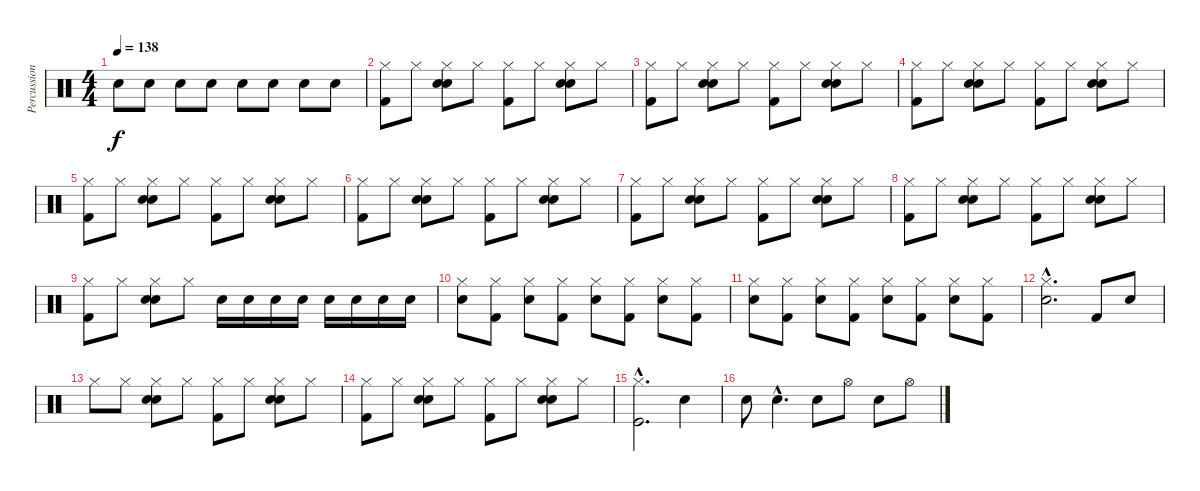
\track ("Percussions" "Percussion") {instrument percussion}
\staff {score}
\articulation defaults
\ts (4 4)
\tempo 138
\clef neutral
\ks c "Electric Snare (hit)".8{dy f} "Electric Snare (hit)".8 "Electric Snare (hit)".8 "Electric Snare (hit)".8 "Electric Snare (hit)".8 "Electric Snare (hit)".8 "Electric Snare (hit)".8 "Electric Snare (hit)".8
|
("Hi-Hat (closed)" "Kick (hit) 2").8 "Hi-Hat (closed)".8 ("Hi-Hat (closed)" "Snare (hit) 2" "Electric Snare (hit)").8 "Hi-Hat (closed)".8 ("Hi-Hat (closed)" "Kick (hit) 2").8 "Hi-Hat (closed)".8 ("Hi-Hat (closed)" "Snare (hit) 2" "Electric Snare (hit)").8 "Hi-Hat (closed)".8 |
("Hi-Hat (closed)" "Kick (hit) 2").8 "Hi-Hat (closed)".8 ("Hi-Hat (closed)" "Snare (hit) 2" "Electric Snare (hit)").8 "Hi-Hat (closed)".8 ("Hi-Hat (closed)" "Kick (hit) 2").8 "Hi-Hat (closed)".8 ("Hi-Hat (closed)" "Snare (hit) 2" "Electric Snare (hit)").8 "Hi-Hat (closed)".8 |
("Hi-Hat (closed)" "Kick (hit) 2").8 "Hi-Hat (closed)".8 ("Hi-Hat (closed)" "Snare (hit) 2" "Electric Snare (hit)").8 "Hi-Hat (closed)".8 ("Hi-Hat (closed)" "Kick (hit) 2").8 "Hi-Hat (closed)".8 ("Hi-Hat (closed)" "Snare (hit) 2" "Electric Snare (hit)").8 "Hi-Hat (closed)".8 |
("Hi-Hat (closed)" "Kick (hit) 2").8 "Hi-Hat (closed)".8 ("Hi-Hat (closed)" "Snare (hit) 2" "Electric Snare (hit)").8 "Hi-Hat (closed)".8 ("Hi-Hat (closed)" "Kick (hit) 2").8 "Hi-Hat (closed)".8 ("Hi-Hat (closed)" "Snare (hit) 2" "Electric Snare (hit)").8 "Hi-Hat (closed)".8 |
("Hi-Hat (closed)" "Kick (hit) 2").8 "Hi-Hat (closed)".8 ("Hi-Hat (closed)" "Snare (hit) 2" "Electric Snare (hit)").8 "Hi-Hat (closed)".8 ("Hi-Hat (closed)" "Kick (hit) 2").8 "Hi-Hat (closed)".8 ("Hi-Hat (closed)" "Snare (hit) 2" "Electric Snare (hit)").8 "Hi-Hat (closed)".8 |
("Hi-Hat (closed)" "Kick (hit) 2").8 "Hi-Hat (closed)".8 ("Hi-Hat (closed)" "Snare (hit) 2" "Electric Snare (hit)").8 "Hi-Hat (closed)".8 ("Hi-Hat (closed)" "Kick (hit) 2").8 "Hi-Hat (closed)".8 ("Hi-Hat (closed)" "Snare (hit) 2" "Electric Snare (hit)").8 "Hi-Hat (closed)".8 |
("Hi-Hat (closed)" "Kick (hit) 2").8 "Hi-Hat (closed)".8 ("Hi-Hat (closed)" "Snare (hit) 2" "Electric Snare (hit)").8 "Hi-Hat (closed)".8 ("Hi-Hat (closed)" "Kick (hit) 2").8 "Hi-Hat (closed)".8 ("Hi-Hat (closed)" "Snare (hit) 2" "Electric Snare (hit)").8 "Hi-Hat (closed)".8 |
("Hi-Hat (closed)" "Kick (hit) 2").8 "Hi-Hat (closed)".8 ("Hi-Hat (closed)" "Snare (hit) 2" "Electric Snare (hit)").8 "Hi-Hat (closed)".8 "Electric Snare (hit)".16 "Electric Snare (hit)".16 "Electric Snare (hit)".16 "Electric Snare (hit)".16 "Electric Snare (hit)".16 "Electric Snare (hit)".16 "Electric Snare (hit)".16 "Electric Snare (hit)".16 |
("Hi-Hat (closed)" "Electric Snare (hit)").8 ("Hi-Hat (closed)" "Kick (hit) 2").8 ("Hi-Hat (closed)" "Electric Snare (hit)").8 ("Hi-Hat (closed)" "Kick (hit) 2").8 ("Hi-Hat (closed)" "Electric Snare (hit)").8 ("Hi-Hat (closed)" "Kick (hit) 2").8 ("Hi-Hat (closed)" "Electric Snare (hit)").8 ("Hi-Hat (closed)" "Kick (hit) 2").8 |
("Hi-Hat (closed)" "Electric Snare (hit)").8 ("Hi-Hat (closed)" "Kick (hit) 2").8 ("Hi-Hat (closed)" "Electric Snare (hit)").8 ("Hi-Hat (closed)" "Kick (hit) 2").8 ("Hi-Hat (closed)" "Electric Snare (hit)").8 ("Hi-Hat (closed)" "Kick (hit) 2").8 ("Hi-Hat (closed)" "Electric Snare (hit)").8 ("Hi-Hat (closed)" "Kick (hit) 2").8 |
("Hi-Hat (closed)"{hac} "Snare (hit) 2"{hac}).2{d} "Kick (hit) 2".8 "Snare (hit) 2".8 |
"Hi-Hat (closed)".8 "Hi-Hat (closed)".8 ("Hi-Hat (closed)" "Snare (hit) 2" "Electric Snare (hit)").8 "Hi-Hat (closed)".8 ("Hi-Hat (closed)" "Kick (hit) 2").8 "Hi-Hat (closed)".8 ("Hi-Hat (closed)" "Snare (hit) 2" "Electric Snare (hit)").8 "Hi-Hat (closed)".8 |
("Hi-Hat (closed)" "Kick (hit) 2").8 "Hi-Hat (closed)".8 ("Hi-Hat (closed)" "Snare (hit) 2" "Electric Snare (hit)").8 "Hi-Hat (closed)".8 ("Hi-Hat (closed)" "Kick (hit) 2").8 "Hi-Hat (closed)".8 ("Hi-Hat (closed)" "Snare (hit) 2" "Electric Snare (hit)").8 "Hi-Hat (closed)".8 |
("Hi-Hat (closed)"{hac} "Kick (hit)"{hac}).2{d} "Electric Snare (hit)".4 |
"Electric Snare (hit)".8 "Electric Snare (hit)"{hac}.4{d} "Electric Snare (hit)".8 "Hi-Hat (open)".8 "Electric Snare (hit)".8 "Hi-Hat (open)".8
